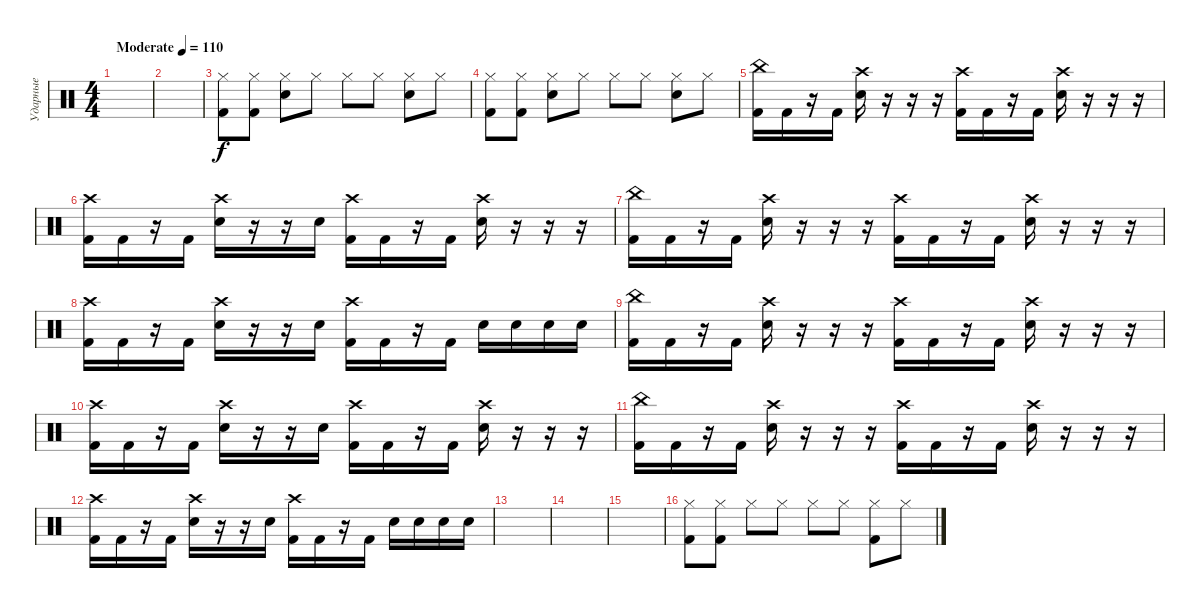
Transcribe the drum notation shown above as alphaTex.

\track ("Ударные" "Ударные") {instrument percussion}
\staff {score}
\articulation defaults
\ts (4 4)
\tempo (110 "Moderate")
\clef neutral
\ks c
|
|
("Hi-Hat (closed)" "Kick (hit) 2").8 ("Hi-Hat (closed)" "Kick (hit) 2").8 ("Hi-Hat (closed)" "Snare (hit) 2").8 "Hi-Hat (closed)".8 "Hi-Hat (closed)".8 "Hi-Hat (closed)".8 ("Hi-Hat (closed)" "Snare (hit) 2").8 "Hi-Hat (closed)".8 |
("Hi-Hat (closed)" "Kick (hit) 2").8 ("Hi-Hat (closed)" "Kick (hit) 2").8 ("Hi-Hat (closed)" "Snare (hit) 2").8 "Hi-Hat (closed)".8 "Hi-Hat (closed)".8 "Hi-Hat (closed)".8 ("Hi-Hat (closed)" "Snare (hit) 2").8 "Hi-Hat (closed)".8 |
("China (hit)" "Kick (hit) 2").16 "Kick (hit) 2".16 r.16 "Kick (hit) 2".16 ("Crash high (hit)" "Snare (hit) 2").16 r.16 r.16 r.16 ("Crash high (hit)" "Kick (hit) 2").16 "Kick (hit) 2".16 r.16 "Kick (hit) 2".16 ("Crash high (hit)" "Snare (hit) 2").16 r.16 r.16 r.16 |
("Crash high (hit)" "Kick (hit) 2").16 "Kick (hit) 2".16 r.16 "Kick (hit) 2".16 ("Crash high (hit)" "Snare (hit) 2").16 r.16 r.16 "Snare (hit) 2".16 ("Crash high (hit)" "Kick (hit) 2").16 "Kick (hit) 2".16 r.16 "Kick (hit) 2".16 ("Crash high (hit)" "Snare (hit) 2").16 r.16 r.16 r.16 |
("China (hit)" "Kick (hit) 2").16 "Kick (hit) 2".16 r.16 "Kick (hit) 2".16 ("Crash high (hit)" "Snare (hit) 2").16 r.16 r.16 r.16 ("Crash high (hit)" "Kick (hit) 2").16 "Kick (hit) 2".16 r.16 "Kick (hit) 2".16 ("Crash high (hit)" "Snare (hit) 2").16 r.16 r.16 r.16 |
("Crash high (hit)" "Kick (hit) 2").16 "Kick (hit) 2".16 r.16 "Kick (hit) 2".16 ("Crash high (hit)" "Snare (hit) 2").16 r.16 r.16 "Snare (hit) 2".16 ("Crash high (hit)" "Kick (hit) 2").16 "Kick (hit) 2".16 r.16 "Kick (hit) 2".16 "Snare (hit) 2".16 "Snare (hit) 2".16 "Snare (hit) 2".16 "Snare (hit) 2".16 |
("China (hit)" "Kick (hit) 2").16 "Kick (hit) 2".16 r.16 "Kick (hit) 2".16 ("Crash high (hit)" "Snare (hit) 2").16 r.16 r.16 r.16 ("Crash high (hit)" "Kick (hit) 2").16 "Kick (hit) 2".16 r.16 "Kick (hit) 2".16 ("Crash high (hit)" "Snare (hit) 2").16 r.16 r.16 r.16 |
("Crash high (hit)" "Kick (hit) 2").16 "Kick (hit) 2".16 r.16 "Kick (hit) 2".16 ("Crash high (hit)" "Snare (hit) 2").16 r.16 r.16 "Snare (hit) 2".16 ("Crash high (hit)" "Kick (hit) 2").16 "Kick (hit) 2".16 r.16 "Kick (hit) 2".16 ("Crash high (hit)" "Snare (hit) 2").16 r.16 r.16 r.16 |
("China (hit)" "Kick (hit) 2").16 "Kick (hit) 2".16 r.16 "Kick (hit) 2".16 ("Crash high (hit)" "Snare (hit) 2").16 r.16 r.16 r.16 ("Crash high (hit)" "Kick (hit) 2").16 "Kick (hit) 2".16 r.16 "Kick (hit) 2".16 ("Crash high (hit)" "Snare (hit) 2").16 r.16 r.16 r.16 |
("Crash high (hit)" "Kick (hit) 2").16 "Kick (hit) 2".16 r.16 "Kick (hit) 2".16 ("Crash high (hit)" "Snare (hit) 2").16 r.16 r.16 "Snare (hit) 2".16 ("Crash high (hit)" "Kick (hit) 2").16 "Kick (hit) 2".16 r.16 "Kick (hit) 2".16 "Snare (hit) 2".16 "Snare (hit) 2".16 "Snare (hit) 2".16 "Snare (hit) 2".16 |
|
|
|
("Hi-Hat (closed)" "Kick (hit) 2").8 ("Hi-Hat (closed)" "Kick (hit) 2").8 "Hi-Hat (closed)".8 "Hi-Hat (closed)".8 "Hi-Hat (closed)".8 "Hi-Hat (closed)".8 ("Hi-Hat (closed)" "Kick (hit) 2").8 "Hi-Hat (closed)".8
